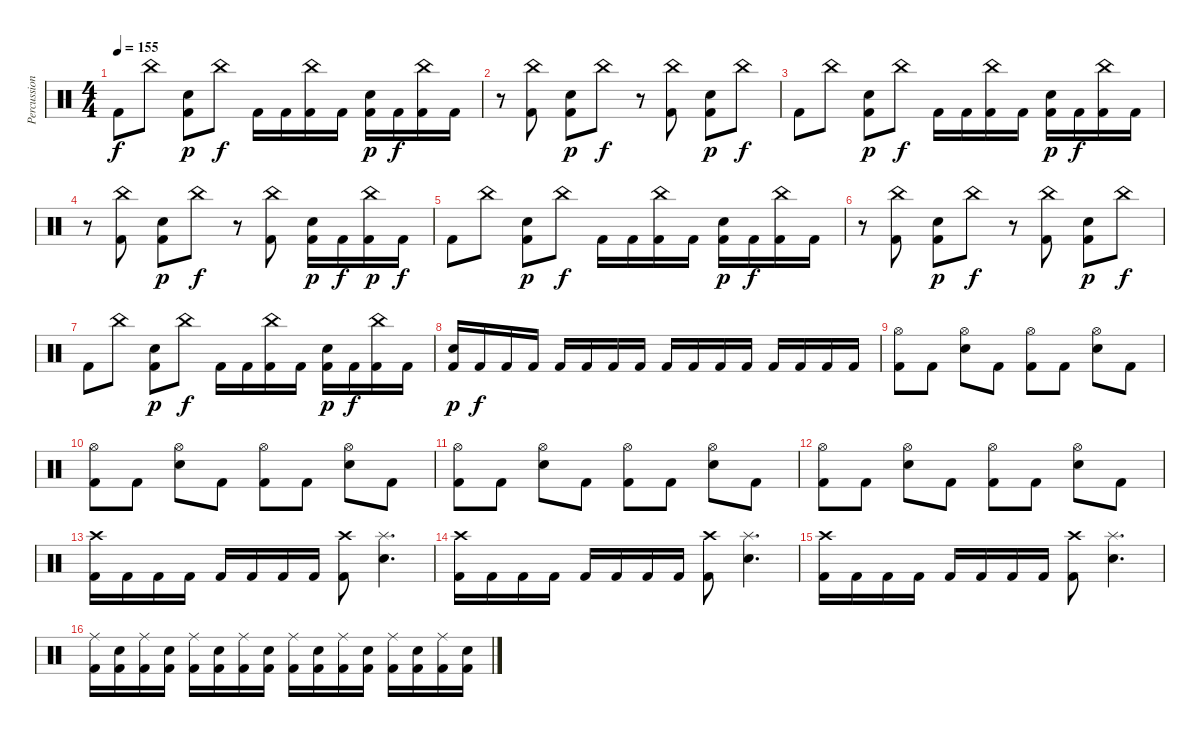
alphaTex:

\track ("Percussion" "Percussion") {instrument percussion}
\staff {score}
\articulation defaults
\ts (4 4)
\tempo 155
\clef neutral
\ks c "Kick (hit) 2".8{dy f} "China (hit)".8
("Electric Snare (hit)" "Kick (hit) 2").8{dy p} "China (hit)".8{dy f} "Kick (hit) 2".16 "Kick (hit) 2".16 ("China (hit)" "Kick (hit) 2").16 "Kick (hit) 2".16 ("Electric Snare (hit)" "Kick (hit) 2").16{dy p} "Kick (hit) 2".16{dy f} ("China (hit)" "Kick (hit) 2").16 "Kick (hit) 2".16 |
r.8 ("China (hit)" "Kick (hit) 2").8 ("Electric Snare (hit)" "Kick (hit) 2").8{dy p} "China (hit)".8{dy f} r.8 ("China (hit)" "Kick (hit) 2").8 ("Electric Snare (hit)" "Kick (hit) 2").8{dy p} "China (hit)".8{dy f} |
"Kick (hit) 2".8 "China (hit)".8 ("Electric Snare (hit)" "Kick (hit) 2").8{dy p} "China (hit)".8{dy f} "Kick (hit) 2".16 "Kick (hit) 2".16 ("China (hit)" "Kick (hit) 2").16 "Kick (hit) 2".16 ("Electric Snare (hit)" "Kick (hit) 2").16{dy p} "Kick (hit) 2".16{dy f} ("China (hit)" "Kick (hit) 2").16 "Kick (hit) 2".16 |
r.8 ("China (hit)" "Kick (hit) 2").8 ("Electric Snare (hit)" "Kick (hit) 2").8{dy p} "China (hit)".8{dy f} r.8 ("China (hit)" "Kick (hit) 2").8 ("Electric Snare (hit)" "Kick (hit) 2").16{dy p} "Kick (hit) 2".16{dy f} ("China (hit)" "Kick (hit) 2").16{dy p} "Kick (hit) 2".16{dy f} |
"Kick (hit) 2".8 "China (hit)".8 ("Electric Snare (hit)" "Kick (hit) 2").8{dy p} "China (hit)".8{dy f} "Kick (hit) 2".16 "Kick (hit) 2".16 ("China (hit)" "Kick (hit) 2").16 "Kick (hit) 2".16 ("Electric Snare (hit)" "Kick (hit) 2").16{dy p} "Kick (hit) 2".16{dy f} ("China (hit)" "Kick (hit) 2").16 "Kick (hit) 2".16 |
r.8 ("China (hit)" "Kick (hit) 2").8 ("Electric Snare (hit)" "Kick (hit) 2").8{dy p} "China (hit)".8{dy f} r.8 ("China (hit)" "Kick (hit) 2").8 ("Electric Snare (hit)" "Kick (hit) 2").8{dy p} "China (hit)".8{dy f} |
"Kick (hit) 2".8 "China (hit)".8 ("Electric Snare (hit)" "Kick (hit) 2").8{dy p} "China (hit)".8{dy f} "Kick (hit) 2".16 "Kick (hit) 2".16 ("China (hit)" "Kick (hit) 2").16 "Kick (hit) 2".16 ("Electric Snare (hit)" "Kick (hit) 2").16{dy p} "Kick (hit) 2".16{dy f} ("China (hit)" "Kick (hit) 2").16 "Kick (hit) 2".16 |
("Electric Snare (hit)" "Kick (hit) 2").16{dy p} "Kick (hit) 2".16{dy f} "Kick (hit) 2".16 "Kick (hit) 2".16 "Kick (hit) 2".16 "Kick (hit) 2".16 "Kick (hit) 2".16 "Kick (hit) 2".16 "Kick (hit) 2".16 "Kick (hit) 2".16 "Kick (hit) 2".16 "Kick (hit) 2".16 "Kick (hit) 2".16 "Kick (hit) 2".16 "Kick (hit) 2".16 "Kick (hit) 2".16 |
("Hi-Hat (open)" "Kick (hit) 2").8 "Kick (hit) 2".8 ("Hi-Hat (open)" "Electric Snare (hit)").8 "Kick (hit) 2".8 ("Hi-Hat (open)" "Kick (hit) 2").8 "Kick (hit) 2".8 ("Hi-Hat (open)" "Electric Snare (hit)").8 "Kick (hit) 2".8 |
("Hi-Hat (open)" "Kick (hit) 2").8 "Kick (hit) 2".8 ("Hi-Hat (open)" "Electric Snare (hit)").8 "Kick (hit) 2".8 ("Hi-Hat (open)" "Kick (hit) 2").8 "Kick (hit) 2".8 ("Hi-Hat (open)" "Electric Snare (hit)").8 "Kick (hit) 2".8 |
("Hi-Hat (open)" "Kick (hit) 2").8 "Kick (hit) 2".8 ("Hi-Hat (open)" "Electric Snare (hit)").8 "Kick (hit) 2".8 ("Hi-Hat (open)" "Kick (hit) 2").8 "Kick (hit) 2".8 ("Hi-Hat (open)" "Electric Snare (hit)").8 "Kick (hit) 2".8 |
("Hi-Hat (open)" "Kick (hit) 2").8 "Kick (hit) 2".8 ("Hi-Hat (open)" "Electric Snare (hit)").8 "Kick (hit) 2".8 ("Hi-Hat (open)" "Kick (hit) 2").8 "Kick (hit) 2".8 ("Hi-Hat (open)" "Electric Snare (hit)").8 "Kick (hit) 2".8 |
("Crash high (hit)" "Kick (hit) 2").16 "Kick (hit) 2".16 "Kick (hit) 2".16 "Kick (hit) 2".16 "Kick (hit) 2".16 "Kick (hit) 2".16 "Kick (hit) 2".16 "Kick (hit) 2".16 ("Crash high (hit)" "Kick (hit) 2").8 ("Electric Snare (hit)" "Splash (hit)").4{d} |
("Crash high (hit)" "Kick (hit) 2").16 "Kick (hit) 2".16 "Kick (hit) 2".16 "Kick (hit) 2".16 "Kick (hit) 2".16 "Kick (hit) 2".16 "Kick (hit) 2".16 "Kick (hit) 2".16 ("Crash high (hit)" "Kick (hit) 2").8 ("Electric Snare (hit)" "Splash (hit)").4{d} |
("Crash high (hit)" "Kick (hit) 2").16 "Kick (hit) 2".16 "Kick (hit) 2".16 "Kick (hit) 2".16 "Kick (hit) 2".16 "Kick (hit) 2".16 "Kick (hit) 2".16 "Kick (hit) 2".16 ("Crash high (hit)" "Kick (hit) 2").8 ("Electric Snare (hit)" "Splash (hit)").4{d} |
("Ride (middle)" "Kick (hit) 2").16 ("Electric Snare (hit)" "Kick (hit) 2").16 ("Ride (middle)" "Kick (hit) 2").16 ("Electric Snare (hit)" "Kick (hit) 2").16 ("Ride (middle)" "Kick (hit) 2").16 ("Electric Snare (hit)" "Kick (hit) 2").16 ("Ride (middle)" "Kick (hit) 2").16 ("Electric Snare (hit)" "Kick (hit) 2").16 ("Ride (middle)" "Kick (hit) 2").16 ("Electric Snare (hit)" "Kick (hit) 2").16 ("Ride (middle)" "Kick (hit) 2").16 ("Electric Snare (hit)" "Kick (hit) 2").16 ("Ride (middle)" "Kick (hit) 2").16 ("Electric Snare (hit)" "Kick (hit) 2").16 ("Ride (middle)" "Kick (hit) 2").16 ("Electric Snare (hit)" "Kick (hit) 2").16
